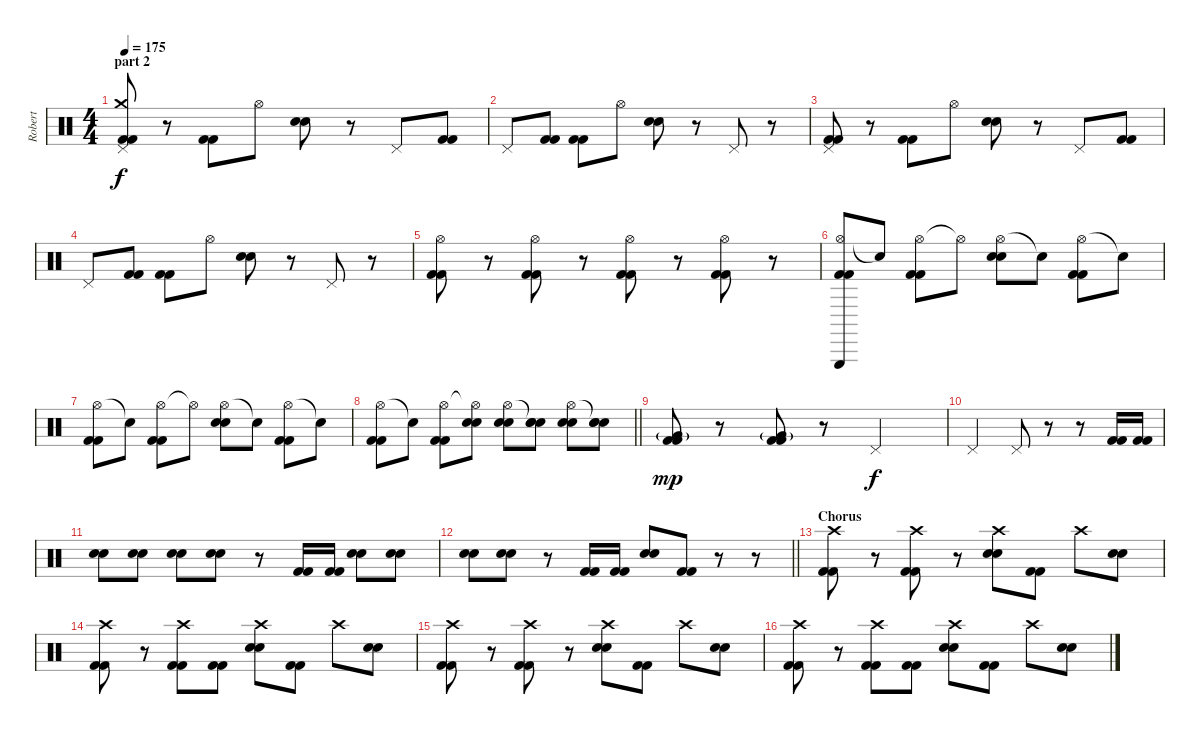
\track ("Robert" "Robert") {instrument percussion}
\staff {score}
\articulation defaults
\ts (4 4)
\section ("" "part 2")
\tempo 175
\clef neutral
\ks c
("Pedal Hi-Hat (hit)" "Crash medium (hit)" "Kick (hit) 2" "Kick (hit) 2").8{dy f} r.8 ("Kick (hit) 2" "Kick (hit) 2").8 "Hi-Hat (open)".8 ("Electric Snare (hit)" "Electric Snare (hit)").8 r.8 "Pedal Hi-Hat (hit)".8 ("Kick (hit) 2" "Kick (hit) 2").8 |
"Pedal Hi-Hat (hit)".8 ("Kick (hit) 2" "Kick (hit) 2").8 ("Kick (hit) 2" "Kick (hit) 2").8 "Hi-Hat (open)".8 ("Electric Snare (hit)" "Electric Snare (hit)").8 r.8 "Pedal Hi-Hat (hit)".8 r.8 |
("Pedal Hi-Hat (hit)" "Kick (hit) 2" "Kick (hit) 2").8 r.8 ("Kick (hit) 2" "Kick (hit) 2").8 "Hi-Hat (open)".8 ("Electric Snare (hit)" "Electric Snare (hit)").8 r.8 "Pedal Hi-Hat (hit)".8 ("Kick (hit) 2" "Kick (hit) 2").8 |
"Pedal Hi-Hat (hit)".8 ("Kick (hit) 2" "Kick (hit) 2").8 ("Kick (hit) 2" "Kick (hit) 2").8 "Hi-Hat (open)".8 ("Electric Snare (hit)" "Electric Snare (hit)").8 r.8 "Pedal Hi-Hat (hit)".8 r.8 |
("Hi-Hat (open)" "Kick (hit) 2" "Kick (hit) 2").8 r.8 ("Hi-Hat (open)" "Kick (hit) 2" "Kick (hit) 2").8 r.8 ("Hi-Hat (open)" "Kick (hit) 2" "Kick (hit) 2").8 r.8 ("Hi-Hat (open)" "Kick (hit) 2" "Kick (hit) 2").8 r.8 |
("Hi-Hat (open)" "Triangle (hit)" "Kick (hit) 2" "Kick (hit) 2").8 "Snare (hit)"{t}.8 ("Hi-Hat (open)" "Kick (hit) 2" "Kick (hit) 2").8 "Hi-Hat (open)"{t}.8 ("Hi-Hat (open)" "Electric Snare (hit)" "Electric Snare (hit)").8 "Snare (hit)"{t}.8 ("Hi-Hat (open)" "Kick (hit) 2" "Kick (hit) 2").8 "Snare (hit)"{t}.8 |
("Hi-Hat (open)" "Kick (hit) 2" "Kick (hit) 2").8 "Snare (hit)"{t}.8 ("Hi-Hat (open)" "Kick (hit) 2" "Kick (hit) 2").8 "Hi-Hat (open)"{t}.8 ("Hi-Hat (open)" "Electric Snare (hit)" "Electric Snare (hit)").8 "Snare (hit)"{t}.8 ("Hi-Hat (open)" "Kick (hit) 2" "Kick (hit) 2").8 "Snare (hit)"{t}.8 |
\barLineRight lightlight
("Hi-Hat (open)" "Kick (hit) 2" "Kick (hit) 2").8 "Snare (hit)"{t}.8 ("Hi-Hat (open)" "Kick (hit) 2" "Kick (hit) 2").8 ("Hi-Hat (open)"{t} "Electric Snare (hit)" "Electric Snare (hit)").8 ("Hi-Hat (open)" "Electric Snare (hit)" "Electric Snare (hit)").8 ("Snare (hit)"{t} "Electric Snare (hit)" "Electric Snare (hit)").8 ("Hi-Hat (open)" "Electric Snare (hit)" "Electric Snare (hit)").8 ("Snare (hit)"{t} "Electric Snare (hit)" "Electric Snare (hit)").8 |
("Very Low Tom (hit)"{g} "Kick (hit) 2" "Kick (hit) 2").8{dy mp} r.8 ("Very Low Tom (hit)"{g} "Kick (hit) 2" "Kick (hit) 2").8 r.8 "Pedal Hi-Hat (hit)".2{dy f} |
"Pedal Hi-Hat (hit)".2 "Pedal Hi-Hat (hit)".8 r.8 r.8 ("Kick (hit) 2" "Kick (hit) 2").16 ("Kick (hit) 2" "Kick (hit) 2").16 |
("Electric Snare (hit)" "Electric Snare (hit)").8 ("Electric Snare (hit)" "Electric Snare (hit)").8 ("Electric Snare (hit)" "Electric Snare (hit)").8 ("Electric Snare (hit)" "Electric Snare (hit)").8 r.8 ("Kick (hit) 2" "Kick (hit) 2").16 ("Kick (hit) 2" "Kick (hit) 2").16 ("Electric Snare (hit)" "Electric Snare (hit)").8 ("Electric Snare (hit)" "Electric Snare (hit)").8 |
\barLineRight lightlight
("Electric Snare (hit)" "Electric Snare (hit)").8 ("Electric Snare (hit)" "Electric Snare (hit)").8 r.8 ("Kick (hit) 2" "Kick (hit) 2").16 ("Kick (hit) 2" "Kick (hit) 2").16 ("Electric Snare (hit)" "Electric Snare (hit)").8 ("Kick (hit) 2" "Kick (hit) 2").8 r.8 r.8 |
\section ("" "Chorus")
("Crash high (hit)" "Kick (hit) 2" "Kick (hit) 2").8 r.8 ("Crash high (hit)" "Kick (hit) 2" "Kick (hit) 2").8 r.8 ("Crash high (hit)" "Electric Snare (hit)" "Electric Snare (hit)").8 ("Kick (hit) 2" "Kick (hit) 2").8 "Crash high (hit)".8 ("Electric Snare (hit)" "Electric Snare (hit)").8 |
("Crash high (hit)" "Kick (hit) 2" "Kick (hit) 2").8 r.8 ("Crash high (hit)" "Kick (hit) 2" "Kick (hit) 2").8 ("Kick (hit) 2" "Kick (hit) 2").8 ("Crash high (hit)" "Electric Snare (hit)" "Electric Snare (hit)").8 ("Kick (hit) 2" "Kick (hit) 2").8 "Crash high (hit)".8 ("Electric Snare (hit)" "Electric Snare (hit)").8 |
("Crash high (hit)" "Kick (hit) 2" "Kick (hit) 2").8 r.8 ("Crash high (hit)" "Kick (hit) 2" "Kick (hit) 2").8 r.8 ("Crash high (hit)" "Electric Snare (hit)" "Electric Snare (hit)").8 ("Kick (hit) 2" "Kick (hit) 2").8 "Crash high (hit)".8 ("Electric Snare (hit)" "Electric Snare (hit)").8 |
("Crash high (hit)" "Kick (hit) 2" "Kick (hit) 2").8 r.8 ("Crash high (hit)" "Kick (hit) 2" "Kick (hit) 2").8 ("Kick (hit) 2" "Kick (hit) 2").8 ("Crash high (hit)" "Electric Snare (hit)" "Electric Snare (hit)").8 ("Kick (hit) 2" "Kick (hit) 2").8 "Crash high (hit)".8 ("Electric Snare (hit)" "Electric Snare (hit)").8
